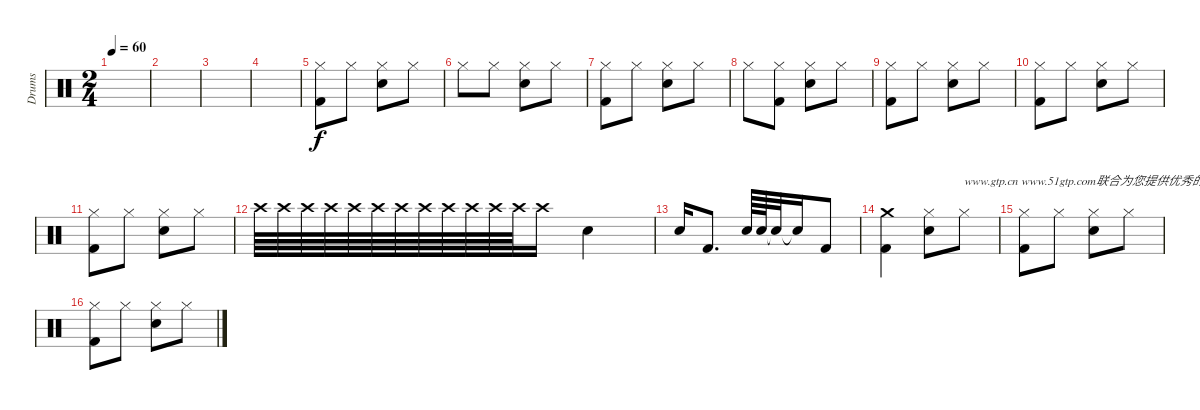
\track ("Drums" "Drums") {instrument percussion}
\staff {score}
\articulation defaults
\ts (2 4)
\tempo 60
\clef neutral
\ks c
|
|
|
|
("Hi-Hat (closed)" "Kick (hit) 2").8 "Hi-Hat (closed)".8 ("Hi-Hat (closed)" "Hand Clap (hit)").8 "Hi-Hat (closed)".8 |
"Hi-Hat (closed)".8 "Hi-Hat (closed)".8 ("Hi-Hat (closed)" "Hand Clap (hit)").8 "Hi-Hat (closed)".8 |
("Hi-Hat (closed)" "Kick (hit) 2").8 "Hi-Hat (closed)".8 ("Hi-Hat (closed)" "Hand Clap (hit)").8 "Hi-Hat (closed)".8 |
"Hi-Hat (closed)".8 ("Hi-Hat (closed)" "Kick (hit) 2").8 ("Hi-Hat (closed)" "Hand Clap (hit)").8 "Hi-Hat (closed)".8 |
("Hi-Hat (closed)" "Kick (hit) 2").8 "Hi-Hat (closed)".8 ("Hi-Hat (closed)" "Hand Clap (hit)").8 "Hi-Hat (closed)".8 |
("Hi-Hat (closed)" "Kick (hit) 2").8 "Hi-Hat (closed)".8 ("Hi-Hat (closed)" "Hand Clap (hit)").8 "Hi-Hat (closed)".8 |
("Hi-Hat (closed)" "Kick (hit) 2").8 "Hi-Hat (closed)".8 ("Hi-Hat (closed)" "Hand Clap (hit)").8 "Hi-Hat (closed)".8 |
"Crash high (hit)".64{volume 5} "Crash high (hit)".64{volume 5} "Crash high (hit)".64{volume 5} "Crash high (hit)".64{volume 6} "Crash high (hit)".64{volume 6} "Crash high (hit)".64{volume 6} "Crash high (hit)".64{volume 8} "Crash high (hit)".64{volume 8} "Crash high (hit)".64{volume 8} "Crash high (hit)".64{volume 8} "Crash high (hit)".64{volume 8} "Crash high (hit)".64{volume 8} "Crash high (hit)".16{volume 8} "Electric Snare (hit)".4{volume 16} |
"Electric Snare (hit)".16 "Kick (hit) 2".8{d} "Electric Snare (hit)".64 "Electric Snare (hit)".64 "Snare (hit)"{t}.32 "Snare (hit)"{t}.16 "Kick (hit) 2".8 |
("Crash medium (hit)" "Kick (hit) 2").4 ("Hi-Hat (closed)" "Electric Snare (hit)").8 "Hi-Hat (closed)".8{txt "www.gtp.cn www.51gtp.com联合为您提供优秀的GTP!"} |
("Hi-Hat (closed)" "Kick (hit) 2").8 "Hi-Hat (closed)".8 ("Hi-Hat (closed)" "Electric Snare (hit)").8 "Hi-Hat (closed)".8 |
("Hi-Hat (closed)" "Kick (hit) 2").8 "Hi-Hat (closed)".8 ("Hi-Hat (closed)" "Electric Snare (hit)").8 "Hi-Hat (closed)".8
